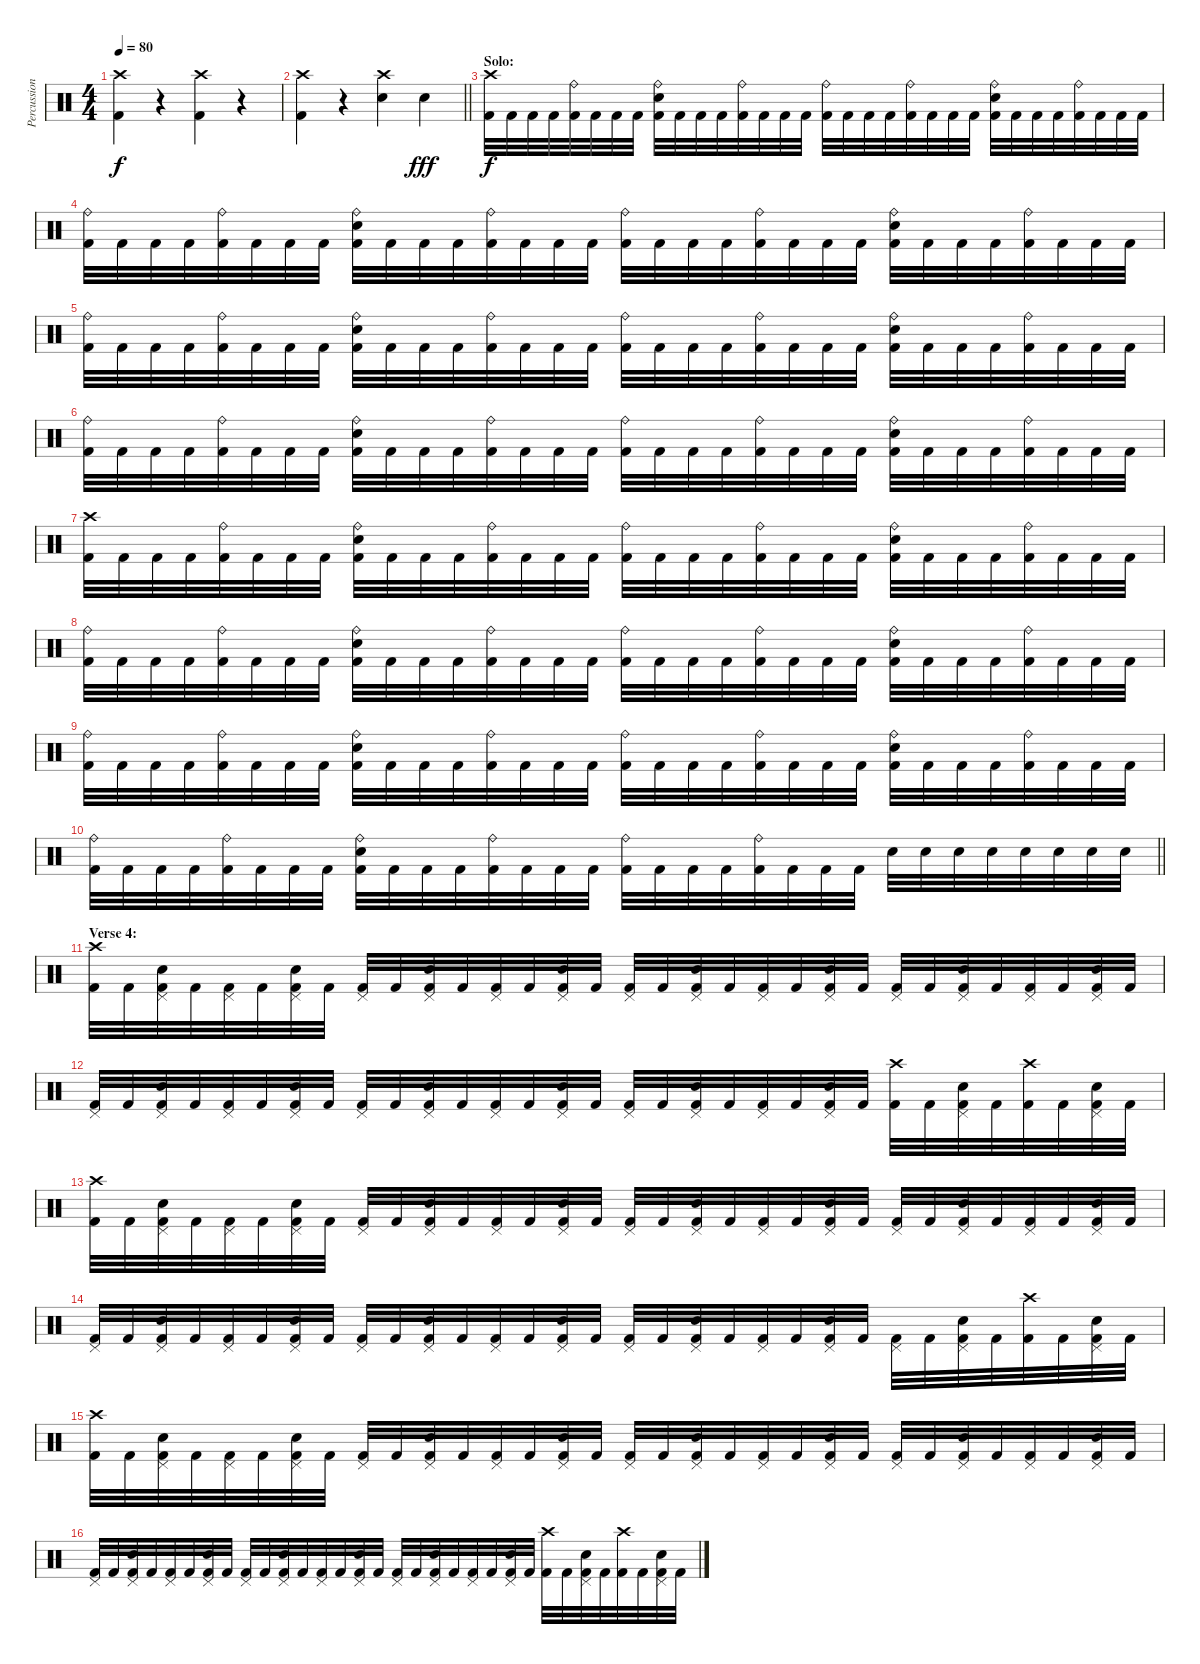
\track ("Percussion" "Percussion") {instrument percussion}
\staff {score}
\articulation defaults
\ts (4 4)
\tempo 80
\clef neutral
\ks c
("Crash high (hit)" "Kick (hit) 2").4{dy f} r.4 ("Crash high (hit)" "Kick (hit) 2").4 r.4 |
\barLineRight lightlight
("Crash high (hit)" "Kick (hit) 2").4 r.4 ("Crash high (hit)" "Electric Snare (hit)").4 "Electric Snare (hit)".4{dy fff} |
\section ("" "Solo:")
("Crash high (hit)" "Kick (hit) 2").32{dy f} "Kick (hit) 2".32 "Kick (hit) 2".32 "Kick (hit) 2".32 ("Ride (bell)" "Kick (hit) 2").32 "Kick (hit) 2".32 "Kick (hit) 2".32 "Kick (hit) 2".32 ("Ride (bell)" "Electric Snare (hit)" "Kick (hit) 2").32 "Kick (hit) 2".32 "Kick (hit) 2".32 "Kick (hit) 2".32 ("Ride (bell)" "Kick (hit) 2").32 "Kick (hit) 2".32 "Kick (hit) 2".32 "Kick (hit) 2".32 ("Ride (bell)" "Kick (hit) 2").32 "Kick (hit) 2".32 "Kick (hit) 2".32 "Kick (hit) 2".32 ("Ride (bell)" "Kick (hit) 2").32 "Kick (hit) 2".32 "Kick (hit) 2".32 "Kick (hit) 2".32 ("Ride (bell)" "Electric Snare (hit)" "Kick (hit) 2").32 "Kick (hit) 2".32 "Kick (hit) 2".32 "Kick (hit) 2".32 ("Ride (bell)" "Kick (hit) 2").32 "Kick (hit) 2".32 "Kick (hit) 2".32 "Kick (hit) 2".32 |
("Ride (bell)" "Kick (hit) 2").32 "Kick (hit) 2".32 "Kick (hit) 2".32 "Kick (hit) 2".32 ("Ride (bell)" "Kick (hit) 2").32 "Kick (hit) 2".32 "Kick (hit) 2".32 "Kick (hit) 2".32 ("Ride (bell)" "Electric Snare (hit)" "Kick (hit) 2").32 "Kick (hit) 2".32 "Kick (hit) 2".32 "Kick (hit) 2".32 ("Ride (bell)" "Kick (hit) 2").32 "Kick (hit) 2".32 "Kick (hit) 2".32 "Kick (hit) 2".32 ("Ride (bell)" "Kick (hit) 2").32 "Kick (hit) 2".32 "Kick (hit) 2".32 "Kick (hit) 2".32 ("Ride (bell)" "Kick (hit) 2").32 "Kick (hit) 2".32 "Kick (hit) 2".32 "Kick (hit) 2".32 ("Ride (bell)" "Electric Snare (hit)" "Kick (hit) 2").32 "Kick (hit) 2".32 "Kick (hit) 2".32 "Kick (hit) 2".32 ("Ride (bell)" "Kick (hit) 2").32 "Kick (hit) 2".32 "Kick (hit) 2".32 "Kick (hit) 2".32 |
("Ride (bell)" "Kick (hit) 2").32 "Kick (hit) 2".32 "Kick (hit) 2".32 "Kick (hit) 2".32 ("Ride (bell)" "Kick (hit) 2").32 "Kick (hit) 2".32 "Kick (hit) 2".32 "Kick (hit) 2".32 ("Ride (bell)" "Electric Snare (hit)" "Kick (hit) 2").32 "Kick (hit) 2".32 "Kick (hit) 2".32 "Kick (hit) 2".32 ("Ride (bell)" "Kick (hit) 2").32 "Kick (hit) 2".32 "Kick (hit) 2".32 "Kick (hit) 2".32 ("Ride (bell)" "Kick (hit) 2").32 "Kick (hit) 2".32 "Kick (hit) 2".32 "Kick (hit) 2".32 ("Ride (bell)" "Kick (hit) 2").32 "Kick (hit) 2".32 "Kick (hit) 2".32 "Kick (hit) 2".32 ("Ride (bell)" "Electric Snare (hit)" "Kick (hit) 2").32 "Kick (hit) 2".32 "Kick (hit) 2".32 "Kick (hit) 2".32 ("Ride (bell)" "Kick (hit) 2").32 "Kick (hit) 2".32 "Kick (hit) 2".32 "Kick (hit) 2".32 |
("Ride (bell)" "Kick (hit) 2").32 "Kick (hit) 2".32 "Kick (hit) 2".32 "Kick (hit) 2".32 ("Ride (bell)" "Kick (hit) 2").32 "Kick (hit) 2".32 "Kick (hit) 2".32 "Kick (hit) 2".32 ("Ride (bell)" "Electric Snare (hit)" "Kick (hit) 2").32 "Kick (hit) 2".32 "Kick (hit) 2".32 "Kick (hit) 2".32 ("Ride (bell)" "Kick (hit) 2").32 "Kick (hit) 2".32 "Kick (hit) 2".32 "Kick (hit) 2".32 ("Ride (bell)" "Kick (hit) 2").32 "Kick (hit) 2".32 "Kick (hit) 2".32 "Kick (hit) 2".32 ("Ride (bell)" "Kick (hit) 2").32 "Kick (hit) 2".32 "Kick (hit) 2".32 "Kick (hit) 2".32 ("Ride (bell)" "Electric Snare (hit)" "Kick (hit) 2").32 "Kick (hit) 2".32 "Kick (hit) 2".32 "Kick (hit) 2".32 ("Ride (bell)" "Kick (hit) 2").32 "Kick (hit) 2".32 "Kick (hit) 2".32 "Kick (hit) 2".32 |
("Crash high (hit)" "Kick (hit) 2").32 "Kick (hit) 2".32 "Kick (hit) 2".32 "Kick (hit) 2".32 ("Ride (bell)" "Kick (hit) 2").32 "Kick (hit) 2".32 "Kick (hit) 2".32 "Kick (hit) 2".32 ("Ride (bell)" "Electric Snare (hit)" "Kick (hit) 2").32 "Kick (hit) 2".32 "Kick (hit) 2".32 "Kick (hit) 2".32 ("Ride (bell)" "Kick (hit) 2").32 "Kick (hit) 2".32 "Kick (hit) 2".32 "Kick (hit) 2".32 ("Ride (bell)" "Kick (hit) 2").32 "Kick (hit) 2".32 "Kick (hit) 2".32 "Kick (hit) 2".32 ("Ride (bell)" "Kick (hit) 2").32 "Kick (hit) 2".32 "Kick (hit) 2".32 "Kick (hit) 2".32 ("Ride (bell)" "Electric Snare (hit)" "Kick (hit) 2").32 "Kick (hit) 2".32 "Kick (hit) 2".32 "Kick (hit) 2".32 ("Ride (bell)" "Kick (hit) 2").32 "Kick (hit) 2".32 "Kick (hit) 2".32 "Kick (hit) 2".32 |
("Ride (bell)" "Kick (hit) 2").32 "Kick (hit) 2".32 "Kick (hit) 2".32 "Kick (hit) 2".32 ("Ride (bell)" "Kick (hit) 2").32 "Kick (hit) 2".32 "Kick (hit) 2".32 "Kick (hit) 2".32 ("Ride (bell)" "Electric Snare (hit)" "Kick (hit) 2").32 "Kick (hit) 2".32 "Kick (hit) 2".32 "Kick (hit) 2".32 ("Ride (bell)" "Kick (hit) 2").32 "Kick (hit) 2".32 "Kick (hit) 2".32 "Kick (hit) 2".32 ("Ride (bell)" "Kick (hit) 2").32 "Kick (hit) 2".32 "Kick (hit) 2".32 "Kick (hit) 2".32 ("Ride (bell)" "Kick (hit) 2").32 "Kick (hit) 2".32 "Kick (hit) 2".32 "Kick (hit) 2".32 ("Ride (bell)" "Electric Snare (hit)" "Kick (hit) 2").32 "Kick (hit) 2".32 "Kick (hit) 2".32 "Kick (hit) 2".32 ("Ride (bell)" "Kick (hit) 2").32 "Kick (hit) 2".32 "Kick (hit) 2".32 "Kick (hit) 2".32 |
("Ride (bell)" "Kick (hit) 2").32 "Kick (hit) 2".32 "Kick (hit) 2".32 "Kick (hit) 2".32 ("Ride (bell)" "Kick (hit) 2").32 "Kick (hit) 2".32 "Kick (hit) 2".32 "Kick (hit) 2".32 ("Ride (bell)" "Electric Snare (hit)" "Kick (hit) 2").32 "Kick (hit) 2".32 "Kick (hit) 2".32 "Kick (hit) 2".32 ("Ride (bell)" "Kick (hit) 2").32 "Kick (hit) 2".32 "Kick (hit) 2".32 "Kick (hit) 2".32 ("Ride (bell)" "Kick (hit) 2").32 "Kick (hit) 2".32 "Kick (hit) 2".32 "Kick (hit) 2".32 ("Ride (bell)" "Kick (hit) 2").32 "Kick (hit) 2".32 "Kick (hit) 2".32 "Kick (hit) 2".32 ("Ride (bell)" "Electric Snare (hit)" "Kick (hit) 2").32 "Kick (hit) 2".32 "Kick (hit) 2".32 "Kick (hit) 2".32 ("Ride (bell)" "Kick (hit) 2").32 "Kick (hit) 2".32 "Kick (hit) 2".32 "Kick (hit) 2".32 |
\barLineRight lightlight
("Ride (bell)" "Kick (hit) 2").32 "Kick (hit) 2".32 "Kick (hit) 2".32 "Kick (hit) 2".32 ("Ride (bell)" "Kick (hit) 2").32 "Kick (hit) 2".32 "Kick (hit) 2".32 "Kick (hit) 2".32 ("Ride (bell)" "Electric Snare (hit)" "Kick (hit) 2").32 "Kick (hit) 2".32 "Kick (hit) 2".32 "Kick (hit) 2".32 ("Ride (bell)" "Kick (hit) 2").32 "Kick (hit) 2".32 "Kick (hit) 2".32 "Kick (hit) 2".32 ("Ride (bell)" "Kick (hit) 2").32 "Kick (hit) 2".32 "Kick (hit) 2".32 "Kick (hit) 2".32 ("Ride (bell)" "Kick (hit) 2").32 "Kick (hit) 2".32 "Kick (hit) 2".32 "Kick (hit) 2".32 "Electric Snare (hit)".32 "Electric Snare (hit)".32 "Electric Snare (hit)".32 "Electric Snare (hit)".32 "Electric Snare (hit)".32 "Electric Snare (hit)".32 "Electric Snare (hit)".32 "Electric Snare (hit)".32 |
\section ("" "Verse 4:")
("Crash high (hit)" "Kick (hit) 2").32 "Kick (hit) 2".32 ("Pedal Hi-Hat (hit)" "Electric Snare (hit)" "Kick (hit) 2").32 "Kick (hit) 2".32 ("Pedal Hi-Hat (hit)" "Kick (hit) 2").32 "Kick (hit) 2".32 ("Pedal Hi-Hat (hit)" "Electric Snare (hit)" "Kick (hit) 2").32 "Kick (hit) 2".32 ("Pedal Hi-Hat (hit)" "Kick (hit) 2").32 "Kick (hit) 2".32 ("Pedal Hi-Hat (hit)" "Electric Snare (hit)" "Kick (hit) 2").32 "Kick (hit) 2".32 ("Pedal Hi-Hat (hit)" "Kick (hit) 2").32 "Kick (hit) 2".32 ("Pedal Hi-Hat (hit)" "Electric Snare (hit)" "Kick (hit) 2").32 "Kick (hit) 2".32 ("Pedal Hi-Hat (hit)" "Kick (hit) 2").32 "Kick (hit) 2".32 ("Pedal Hi-Hat (hit)" "Electric Snare (hit)" "Kick (hit) 2").32 "Kick (hit) 2".32 ("Pedal Hi-Hat (hit)" "Kick (hit) 2").32 "Kick (hit) 2".32 ("Pedal Hi-Hat (hit)" "Electric Snare (hit)" "Kick (hit) 2").32 "Kick (hit) 2".32 ("Pedal Hi-Hat (hit)" "Kick (hit) 2").32 "Kick (hit) 2".32 ("Pedal Hi-Hat (hit)" "Electric Snare (hit)" "Kick (hit) 2").32 "Kick (hit) 2".32 ("Pedal Hi-Hat (hit)" "Kick (hit) 2").32 "Kick (hit) 2".32 ("Pedal Hi-Hat (hit)" "Electric Snare (hit)" "Kick (hit) 2").32 "Kick (hit) 2".32 |
("Pedal Hi-Hat (hit)" "Kick (hit) 2").32 "Kick (hit) 2".32 ("Pedal Hi-Hat (hit)" "Electric Snare (hit)" "Kick (hit) 2").32 "Kick (hit) 2".32 ("Pedal Hi-Hat (hit)" "Kick (hit) 2").32 "Kick (hit) 2".32 ("Pedal Hi-Hat (hit)" "Electric Snare (hit)" "Kick (hit) 2").32 "Kick (hit) 2".32 ("Pedal Hi-Hat (hit)" "Kick (hit) 2").32 "Kick (hit) 2".32 ("Pedal Hi-Hat (hit)" "Electric Snare (hit)" "Kick (hit) 2").32 "Kick (hit) 2".32 ("Pedal Hi-Hat (hit)" "Kick (hit) 2").32 "Kick (hit) 2".32 ("Pedal Hi-Hat (hit)" "Electric Snare (hit)" "Kick (hit) 2").32 "Kick (hit) 2".32 ("Pedal Hi-Hat (hit)" "Kick (hit) 2").32 "Kick (hit) 2".32 ("Pedal Hi-Hat (hit)" "Electric Snare (hit)" "Kick (hit) 2").32 "Kick (hit) 2".32 ("Pedal Hi-Hat (hit)" "Kick (hit) 2").32 "Kick (hit) 2".32 ("Pedal Hi-Hat (hit)" "Electric Snare (hit)" "Kick (hit) 2").32 "Kick (hit) 2".32 ("Crash high (hit)" "Kick (hit) 2").32 "Kick (hit) 2".32 ("Pedal Hi-Hat (hit)" "Electric Snare (hit)" "Kick (hit) 2").32 "Kick (hit) 2".32 ("Crash high (hit)" "Kick (hit) 2").32 "Kick (hit) 2".32 ("Pedal Hi-Hat (hit)" "Electric Snare (hit)" "Kick (hit) 2").32 "Kick (hit) 2".32 |
("Crash high (hit)" "Kick (hit) 2").32 "Kick (hit) 2".32 ("Pedal Hi-Hat (hit)" "Electric Snare (hit)" "Kick (hit) 2").32 "Kick (hit) 2".32 ("Pedal Hi-Hat (hit)" "Kick (hit) 2").32 "Kick (hit) 2".32 ("Pedal Hi-Hat (hit)" "Electric Snare (hit)" "Kick (hit) 2").32 "Kick (hit) 2".32 ("Pedal Hi-Hat (hit)" "Kick (hit) 2").32 "Kick (hit) 2".32 ("Pedal Hi-Hat (hit)" "Electric Snare (hit)" "Kick (hit) 2").32 "Kick (hit) 2".32 ("Pedal Hi-Hat (hit)" "Kick (hit) 2").32 "Kick (hit) 2".32 ("Pedal Hi-Hat (hit)" "Electric Snare (hit)" "Kick (hit) 2").32 "Kick (hit) 2".32 ("Pedal Hi-Hat (hit)" "Kick (hit) 2").32 "Kick (hit) 2".32 ("Pedal Hi-Hat (hit)" "Electric Snare (hit)" "Kick (hit) 2").32 "Kick (hit) 2".32 ("Pedal Hi-Hat (hit)" "Kick (hit) 2").32 "Kick (hit) 2".32 ("Pedal Hi-Hat (hit)" "Electric Snare (hit)" "Kick (hit) 2").32 "Kick (hit) 2".32 ("Pedal Hi-Hat (hit)" "Kick (hit) 2").32 "Kick (hit) 2".32 ("Pedal Hi-Hat (hit)" "Electric Snare (hit)" "Kick (hit) 2").32 "Kick (hit) 2".32 ("Pedal Hi-Hat (hit)" "Kick (hit) 2").32 "Kick (hit) 2".32 ("Pedal Hi-Hat (hit)" "Electric Snare (hit)" "Kick (hit) 2").32 "Kick (hit) 2".32 |
("Pedal Hi-Hat (hit)" "Kick (hit) 2").32 "Kick (hit) 2".32 ("Pedal Hi-Hat (hit)" "Electric Snare (hit)" "Kick (hit) 2").32 "Kick (hit) 2".32 ("Pedal Hi-Hat (hit)" "Kick (hit) 2").32 "Kick (hit) 2".32 ("Pedal Hi-Hat (hit)" "Electric Snare (hit)" "Kick (hit) 2").32 "Kick (hit) 2".32 ("Pedal Hi-Hat (hit)" "Kick (hit) 2").32 "Kick (hit) 2".32 ("Pedal Hi-Hat (hit)" "Electric Snare (hit)" "Kick (hit) 2").32 "Kick (hit) 2".32 ("Pedal Hi-Hat (hit)" "Kick (hit) 2").32 "Kick (hit) 2".32 ("Pedal Hi-Hat (hit)" "Electric Snare (hit)" "Kick (hit) 2").32 "Kick (hit) 2".32 ("Pedal Hi-Hat (hit)" "Kick (hit) 2").32 "Kick (hit) 2".32 ("Pedal Hi-Hat (hit)" "Electric Snare (hit)" "Kick (hit) 2").32 "Kick (hit) 2".32 ("Pedal Hi-Hat (hit)" "Kick (hit) 2").32 "Kick (hit) 2".32 ("Pedal Hi-Hat (hit)" "Electric Snare (hit)" "Kick (hit) 2").32 "Kick (hit) 2".32 ("Pedal Hi-Hat (hit)" "Kick (hit) 2").32 "Kick (hit) 2".32 ("Pedal Hi-Hat (hit)" "Electric Snare (hit)" "Kick (hit) 2").32 "Kick (hit) 2".32 ("Crash high (hit)" "Kick (hit) 2").32 "Kick (hit) 2".32 ("Pedal Hi-Hat (hit)" "Electric Snare (hit)" "Kick (hit) 2").32 "Kick (hit) 2".32 |
("Crash high (hit)" "Kick (hit) 2").32 "Kick (hit) 2".32 ("Pedal Hi-Hat (hit)" "Electric Snare (hit)" "Kick (hit) 2").32 "Kick (hit) 2".32 ("Pedal Hi-Hat (hit)" "Kick (hit) 2").32 "Kick (hit) 2".32 ("Pedal Hi-Hat (hit)" "Electric Snare (hit)" "Kick (hit) 2").32 "Kick (hit) 2".32 ("Pedal Hi-Hat (hit)" "Kick (hit) 2").32 "Kick (hit) 2".32 ("Pedal Hi-Hat (hit)" "Electric Snare (hit)" "Kick (hit) 2").32 "Kick (hit) 2".32 ("Pedal Hi-Hat (hit)" "Kick (hit) 2").32 "Kick (hit) 2".32 ("Pedal Hi-Hat (hit)" "Electric Snare (hit)" "Kick (hit) 2").32 "Kick (hit) 2".32 ("Pedal Hi-Hat (hit)" "Kick (hit) 2").32 "Kick (hit) 2".32 ("Pedal Hi-Hat (hit)" "Electric Snare (hit)" "Kick (hit) 2").32 "Kick (hit) 2".32 ("Pedal Hi-Hat (hit)" "Kick (hit) 2").32 "Kick (hit) 2".32 ("Pedal Hi-Hat (hit)" "Electric Snare (hit)" "Kick (hit) 2").32 "Kick (hit) 2".32 ("Pedal Hi-Hat (hit)" "Kick (hit) 2").32 "Kick (hit) 2".32 ("Pedal Hi-Hat (hit)" "Electric Snare (hit)" "Kick (hit) 2").32 "Kick (hit) 2".32 ("Pedal Hi-Hat (hit)" "Kick (hit) 2").32 "Kick (hit) 2".32 ("Pedal Hi-Hat (hit)" "Electric Snare (hit)" "Kick (hit) 2").32 "Kick (hit) 2".32 |
("Pedal Hi-Hat (hit)" "Kick (hit) 2").32 "Kick (hit) 2".32 ("Pedal Hi-Hat (hit)" "Electric Snare (hit)" "Kick (hit) 2").32 "Kick (hit) 2".32 ("Pedal Hi-Hat (hit)" "Kick (hit) 2").32 "Kick (hit) 2".32 ("Pedal Hi-Hat (hit)" "Electric Snare (hit)" "Kick (hit) 2").32 "Kick (hit) 2".32 ("Pedal Hi-Hat (hit)" "Kick (hit) 2").32 "Kick (hit) 2".32 ("Pedal Hi-Hat (hit)" "Electric Snare (hit)" "Kick (hit) 2").32 "Kick (hit) 2".32 ("Pedal Hi-Hat (hit)" "Kick (hit) 2").32 "Kick (hit) 2".32 ("Pedal Hi-Hat (hit)" "Electric Snare (hit)" "Kick (hit) 2").32 "Kick (hit) 2".32 ("Pedal Hi-Hat (hit)" "Kick (hit) 2").32 "Kick (hit) 2".32 ("Pedal Hi-Hat (hit)" "Electric Snare (hit)" "Kick (hit) 2").32 "Kick (hit) 2".32 ("Pedal Hi-Hat (hit)" "Kick (hit) 2").32 "Kick (hit) 2".32 ("Pedal Hi-Hat (hit)" "Electric Snare (hit)" "Kick (hit) 2").32 "Kick (hit) 2".32 ("Crash high (hit)" "Kick (hit) 2").32 "Kick (hit) 2".32 ("Pedal Hi-Hat (hit)" "Electric Snare (hit)" "Kick (hit) 2").32 "Kick (hit) 2".32 ("Crash high (hit)" "Kick (hit) 2").32 "Kick (hit) 2".32 ("Pedal Hi-Hat (hit)" "Electric Snare (hit)" "Kick (hit) 2").32 "Kick (hit) 2".32
